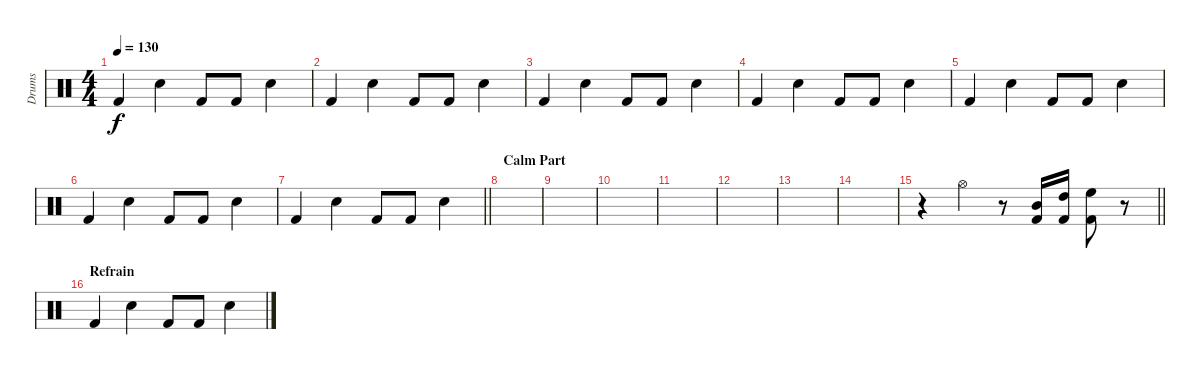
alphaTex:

\track ("Drums" "Drums") {instrument percussion}
\staff {score}
\articulation defaults
\ts (4 4)
\tempo 130
\clef neutral
\ks c "Kick (hit) 2".4{dy f} "Snare (hit) 2".4 "Kick (hit) 2".8 "Kick (hit) 2".8 "Snare (hit) 2".4
|
"Kick (hit) 2".4 "Snare (hit) 2".4 "Kick (hit) 2".8 "Kick (hit) 2".8 "Snare (hit) 2".4 |
"Kick (hit) 2".4 "Snare (hit) 2".4 "Kick (hit) 2".8 "Kick (hit) 2".8 "Snare (hit) 2".4 |
"Kick (hit) 2".4 "Snare (hit) 2".4 "Kick (hit) 2".8 "Kick (hit) 2".8 "Snare (hit) 2".4 |
"Kick (hit) 2".4 "Snare (hit) 2".4 "Kick (hit) 2".8 "Kick (hit) 2".8 "Snare (hit) 2".4 |
"Kick (hit) 2".4 "Snare (hit) 2".4 "Kick (hit) 2".8 "Kick (hit) 2".8 "Snare (hit) 2".4 |
\barLineRight lightlight "Kick (hit) 2".4 "Snare (hit) 2".4 "Kick (hit) 2".8 "Kick (hit) 2".8 "Snare (hit) 2".4
|
\section ("" "Calm Part")
|
|
|
|
|
|
|
\barLineRight lightlight
r.4 "Hi-Hat (open)".4 r.8 ("Mid Tom (hit)" "Kick (hit) 2").16 ("High Tom (hit)" "Kick (hit) 2").16 ("High Floor Tom (hit)" "Kick (hit) 2").8 r.8 |
\section ("" "Refrain")
"Kick (hit) 2".4 "Snare (hit) 2".4 "Kick (hit) 2".8 "Kick (hit) 2".8 "Snare (hit) 2".4
